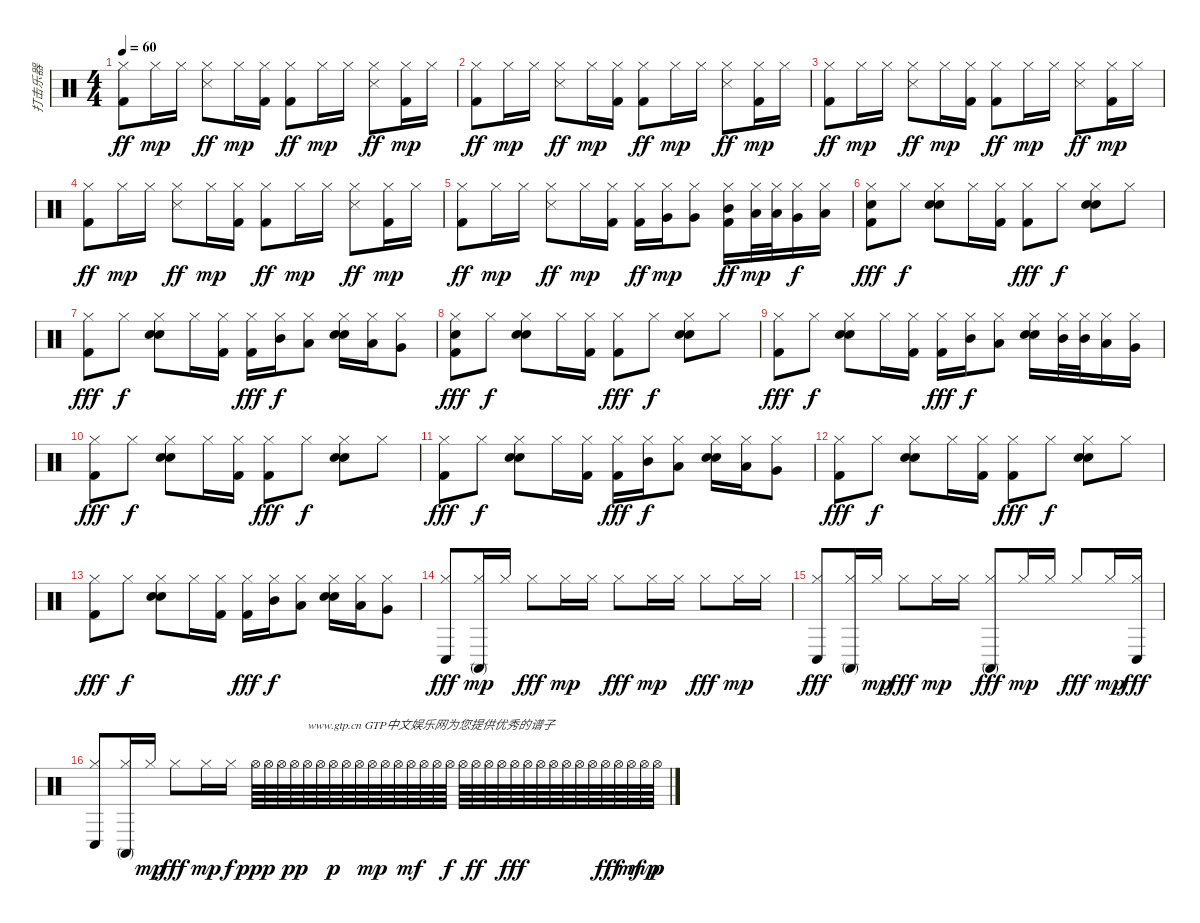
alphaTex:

\track ("打击乐器" "打击乐器") {instrument percussion}
\staff {score}
\articulation defaults
\ts (4 4)
\tempo 60
\clef neutral
\ks c
("Hi-Hat (closed)" "Kick (hit) 2").8{dy ff} "Hi-Hat (closed)".16{dy mp} "Hi-Hat (closed)".16 ("Hi-Hat (closed)" "Snare (side stick) 3").8{dy ff} "Hi-Hat (closed)".16{dy mp} ("Hi-Hat (closed)" "Kick (hit) 2").16 ("Hi-Hat (closed)" "Kick (hit) 2").8{dy ff} "Hi-Hat (closed)".16{dy mp} "Hi-Hat (closed)".16 ("Hi-Hat (closed)" "Snare (side stick) 3").8{dy ff} ("Hi-Hat (closed)" "Kick (hit) 2").16{dy mp} "Hi-Hat (closed)".16 |
("Hi-Hat (closed)" "Kick (hit) 2").8{dy ff} "Hi-Hat (closed)".16{dy mp} "Hi-Hat (closed)".16 ("Hi-Hat (closed)" "Snare (side stick) 3").8{dy ff} "Hi-Hat (closed)".16{dy mp} ("Hi-Hat (closed)" "Kick (hit) 2").16 ("Hi-Hat (closed)" "Kick (hit) 2").8{dy ff} "Hi-Hat (closed)".16{dy mp} "Hi-Hat (closed)".16 ("Hi-Hat (closed)" "Snare (side stick) 3").8{dy ff} ("Hi-Hat (closed)" "Kick (hit) 2").16{dy mp} "Hi-Hat (closed)".16 |
("Hi-Hat (closed)" "Kick (hit) 2").8{dy ff} "Hi-Hat (closed)".16{dy mp} "Hi-Hat (closed)".16 ("Hi-Hat (closed)" "Snare (side stick) 3").8{dy ff} "Hi-Hat (closed)".16{dy mp} ("Hi-Hat (closed)" "Kick (hit) 2").16 ("Hi-Hat (closed)" "Kick (hit) 2").8{dy ff} "Hi-Hat (closed)".16{dy mp} "Hi-Hat (closed)".16 ("Hi-Hat (closed)" "Snare (side stick) 3").8{dy ff} ("Hi-Hat (closed)" "Kick (hit) 2").16{dy mp} "Hi-Hat (closed)".16 |
("Hi-Hat (closed)" "Kick (hit) 2").8{dy ff} "Hi-Hat (closed)".16{dy mp} "Hi-Hat (closed)".16 ("Hi-Hat (closed)" "Snare (side stick) 3").8{dy ff} "Hi-Hat (closed)".16{dy mp} ("Hi-Hat (closed)" "Kick (hit) 2").16 ("Hi-Hat (closed)" "Kick (hit) 2").8{dy ff} "Hi-Hat (closed)".16{dy mp} "Hi-Hat (closed)".16 ("Hi-Hat (closed)" "Snare (side stick) 3").8{dy ff} ("Hi-Hat (closed)" "Kick (hit) 2").16{dy mp} "Hi-Hat (closed)".16 |
("Hi-Hat (closed)" "Kick (hit) 2").8{dy ff} "Hi-Hat (closed)".16{dy mp} "Hi-Hat (closed)".16 ("Hi-Hat (closed)" "Snare (side stick) 3").8{dy ff} "Hi-Hat (closed)".16{dy mp} ("Hi-Hat (closed)" "Kick (hit) 2").16 ("Hi-Hat (closed)" "Kick (hit) 2").16{dy ff} ("Hi-Hat (closed)" "Very Low Tom (hit)").16{dy mp balance 0} ("Hi-Hat (closed)" "Very Low Tom (hit)").8{balance 16} ("Hi-Hat (closed)" "Mid Tom (hit)" "Kick (hit) 2").16{dy ff balance 8} ("Hi-Hat (closed)" "Low Tom (hit)").32{dy mp} ("Hi-Hat (closed)" "Low Tom (hit)").32 ("Hi-Hat (closed)" "Very Low Tom (hit)").16{dy f} ("Hi-Hat (closed)" "Low Floor Tom (hit)").16 |
("Hi-Hat (closed)" "Kick (hit) 2" "Electric Snare (hit)").8{dy fff} "Hi-Hat (closed)".8{dy f} ("Electric Snare (hit)" "Hand Clap (hit)" "Hi-Hat (closed)").8 "Hi-Hat (closed)".16 ("Kick (hit) 2" "Hi-Hat (closed)").16 ("Kick (hit) 2" "Hi-Hat (closed)").8{dy fff} "Hi-Hat (closed)".8{dy f} ("Electric Snare (hit)" "Hand Clap (hit)" "Hi-Hat (closed)").8 "Hi-Hat (closed)".8 |
("Kick (hit) 2" "Hi-Hat (closed)").8{dy fff} "Hi-Hat (closed)".8{dy f} ("Electric Snare (hit)" "Hand Clap (hit)" "Hi-Hat (closed)").8 "Hi-Hat (closed)".16 ("Kick (hit) 2" "Hi-Hat (closed)").16 ("Kick (hit) 2" "Hi-Hat (closed)").16{dy fff} ("Mid Tom (hit)" "Hi-Hat (closed)").16{dy f} ("Low Tom (hit)" "Hi-Hat (closed)").8 ("Electric Snare (hit)" "Hand Clap (hit)" "Hi-Hat (closed)").16 ("Low Tom (hit)" "Hi-Hat (closed)").16 ("Very Low Tom (hit)" "Hi-Hat (closed)").8 |
("Hi-Hat (closed)" "Kick (hit) 2" "Electric Snare (hit)").8{dy fff} "Hi-Hat (closed)".8{dy f} ("Electric Snare (hit)" "Hand Clap (hit)" "Hi-Hat (closed)").8 "Hi-Hat (closed)".16 ("Kick (hit) 2" "Hi-Hat (closed)").16 ("Kick (hit) 2" "Hi-Hat (closed)").8{dy fff} "Hi-Hat (closed)".8{dy f} ("Electric Snare (hit)" "Hand Clap (hit)" "Hi-Hat (closed)").8 "Hi-Hat (closed)".8 |
("Kick (hit) 2" "Hi-Hat (closed)").8{dy fff} "Hi-Hat (closed)".8{dy f} ("Electric Snare (hit)" "Hand Clap (hit)" "Hi-Hat (closed)").8 "Hi-Hat (closed)".16 ("Kick (hit) 2" "Hi-Hat (closed)").16 ("Kick (hit) 2" "Hi-Hat (closed)").16{dy fff} ("Mid Tom (hit)" "Hi-Hat (closed)").16{dy f} ("Low Tom (hit)" "Hi-Hat (closed)").8 ("Electric Snare (hit)" "Hand Clap (hit)" "Hi-Hat (closed)").16 ("Mid Tom (hit)" "Hi-Hat (closed)").32 ("Mid Tom (hit)" "Hi-Hat (closed)").32 ("Low Tom (hit)" "Hi-Hat (closed)").16 ("Very Low Tom (hit)" "Hi-Hat (closed)").16 |
("Kick (hit) 2" "Hi-Hat (closed)").8{dy fff} "Hi-Hat (closed)".8{dy f} ("Electric Snare (hit)" "Hand Clap (hit)" "Hi-Hat (closed)").8 "Hi-Hat (closed)".16 ("Kick (hit) 2" "Hi-Hat (closed)").16 ("Kick (hit) 2" "Hi-Hat (closed)").8{dy fff} "Hi-Hat (closed)".8{dy f} ("Electric Snare (hit)" "Hand Clap (hit)" "Hi-Hat (closed)").8 "Hi-Hat (closed)".8 |
("Kick (hit) 2" "Hi-Hat (closed)").8{dy fff} "Hi-Hat (closed)".8{dy f} ("Electric Snare (hit)" "Hand Clap (hit)" "Hi-Hat (closed)").8 "Hi-Hat (closed)".16 ("Kick (hit) 2" "Hi-Hat (closed)").16 ("Kick (hit) 2" "Hi-Hat (closed)").16{dy fff} ("Mid Tom (hit)" "Hi-Hat (closed)").16{dy f} ("Low Tom (hit)" "Hi-Hat (closed)").8 ("Electric Snare (hit)" "Hand Clap (hit)" "Hi-Hat (closed)").16 ("Low Tom (hit)" "Hi-Hat (closed)").16 ("Very Low Tom (hit)" "Hi-Hat (closed)").8 |
("Kick (hit) 2" "Hi-Hat (closed)").8{dy fff} "Hi-Hat (closed)".8{dy f} ("Electric Snare (hit)" "Hand Clap (hit)" "Hi-Hat (closed)").8 "Hi-Hat (closed)".16 ("Kick (hit) 2" "Hi-Hat (closed)").16 ("Kick (hit) 2" "Hi-Hat (closed)").8{dy fff} "Hi-Hat (closed)".8{dy f} ("Electric Snare (hit)" "Hand Clap (hit)" "Hi-Hat (closed)").8 "Hi-Hat (closed)".8 |
("Kick (hit) 2" "Hi-Hat (closed)").8{dy fff} "Hi-Hat (closed)".8{dy f} ("Electric Snare (hit)" "Hand Clap (hit)" "Hi-Hat (closed)").8 "Hi-Hat (closed)".16 ("Kick (hit) 2" "Hi-Hat (closed)").16 ("Kick (hit) 2" "Hi-Hat (closed)").16{dy fff} ("Mid Tom (hit)" "Hi-Hat (closed)").16{dy f} ("Low Tom (hit)" "Hi-Hat (closed)").8 ("Electric Snare (hit)" "Hand Clap (hit)" "Hi-Hat (closed)").16 ("Low Tom (hit)" "Hi-Hat (closed)").16 ("Very Low Tom (hit)" "Hi-Hat (closed)").8 |
("Hi-Hat (closed)" "Conga low (hit)").8{dy fff} ("Hi-Hat (closed)" "Conga high (mute)").16{dy mp} "Hi-Hat (closed)".16 "Hi-Hat (closed)".8{dy fff} "Hi-Hat (closed)".16{dy mp} "Hi-Hat (closed)".16 "Hi-Hat (closed)".8{dy fff} "Hi-Hat (closed)".16{dy mp} "Hi-Hat (closed)".16 "Hi-Hat (closed)".8{dy fff} "Hi-Hat (closed)".16{dy mp} "Hi-Hat (closed)".16 |
("Hi-Hat (closed)" "Conga low (hit)").8{dy fff} ("Hi-Hat (closed)" "Conga high (mute)").16 "Hi-Hat (closed)".16{dy mp} "Hi-Hat (closed)".8{dy fff} "Hi-Hat (closed)".16{dy mp} "Hi-Hat (closed)".16 ("Hi-Hat (closed)" "Conga high (mute)").8{dy fff} "Hi-Hat (closed)".16{dy mp} "Hi-Hat (closed)".16 "Hi-Hat (closed)".8{dy fff} "Hi-Hat (closed)".16{dy mp} ("Hi-Hat (closed)" "Conga low (hit)").16{dy fff} |
("Hi-Hat (closed)" "Conga low (hit)").8 ("Hi-Hat (closed)" "Conga high (mute)").16 "Hi-Hat (closed)".16{dy mp} "Hi-Hat (closed)".8{dy fff} "Hi-Hat (closed)".16{dy mp} "Hi-Hat (closed)".16{dy f} "Hi-Hat (open)".64{dy ppp} "Hi-Hat (open)".64 "Hi-Hat (open)".64 "Hi-Hat (open)".64{dy pp} "Hi-Hat (open)".64{txt "www.gtp.cn GTP中文娱乐网为您提供优秀的谱子"} "Hi-Hat (open)".64 "Hi-Hat (open)".64{dy p} "Hi-Hat (open)".64 "Hi-Hat (open)".64 "Hi-Hat (open)".64{dy mp} "Hi-Hat (open)".64 "Hi-Hat (open)".64 "Hi-Hat (open)".64{dy mf} "Hi-Hat (open)".64 "Hi-Hat (open)".64 "Hi-Hat (open)".64{dy f} "Hi-Hat (open)".64 "Hi-Hat (open)".64{dy ff} "Hi-Hat (open)".64 "Hi-Hat (open)".64 "Hi-Hat (open)".64{dy fff} "Hi-Hat (open)".64 "Hi-Hat (open)".64 "Hi-Hat (open)".64 "Hi-Hat (open)".64 "Hi-Hat (open)".64 "Hi-Hat (open)".64 "Hi-Hat (open)".64{dy ff} "Hi-Hat (open)".64{dy f} "Hi-Hat (open)".64{dy mf} "Hi-Hat (open)".64{dy mp} "Hi-Hat (open)".64{dy p}
